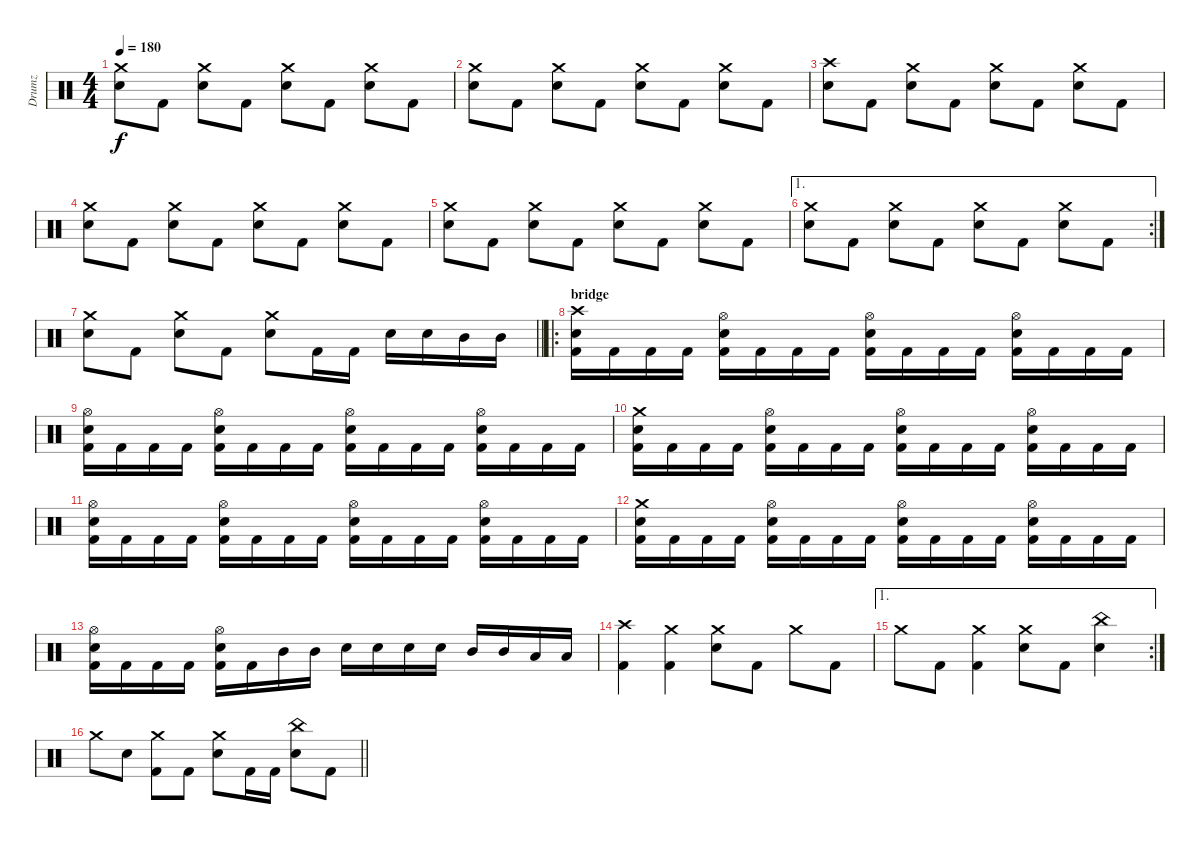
\track ("Drumz" "Drumz") {instrument percussion}
\staff {score}
\articulation defaults
\ts (4 4)
\tempo 180
\clef neutral
\ks c
("Crash medium (hit)" "Electric Snare (hit)").8{dy f} "Kick (hit) 2".8 ("Crash medium (hit)" "Electric Snare (hit)").8 "Kick (hit) 2".8 ("Crash medium (hit)" "Electric Snare (hit)").8 "Kick (hit) 2".8 ("Crash medium (hit)" "Electric Snare (hit)").8 "Kick (hit) 2".8 |
("Crash medium (hit)" "Electric Snare (hit)").8 "Kick (hit) 2".8 ("Crash medium (hit)" "Electric Snare (hit)").8 "Kick (hit) 2".8 ("Crash medium (hit)" "Electric Snare (hit)").8 "Kick (hit) 2".8 ("Crash medium (hit)" "Electric Snare (hit)").8 "Kick (hit) 2".8 |
("Crash high (hit)" "Electric Snare (hit)").8 "Kick (hit) 2".8 ("Crash medium (hit)" "Electric Snare (hit)").8 "Kick (hit) 2".8 ("Crash medium (hit)" "Electric Snare (hit)").8 "Kick (hit) 2".8 ("Crash medium (hit)" "Electric Snare (hit)").8 "Kick (hit) 2".8 |
("Crash medium (hit)" "Electric Snare (hit)").8 "Kick (hit) 2".8 ("Crash medium (hit)" "Electric Snare (hit)").8 "Kick (hit) 2".8 ("Crash medium (hit)" "Electric Snare (hit)").8 "Kick (hit) 2".8 ("Crash medium (hit)" "Electric Snare (hit)").8 "Kick (hit) 2".8 |
("Crash medium (hit)" "Electric Snare (hit)").8 "Kick (hit) 2".8 ("Crash medium (hit)" "Electric Snare (hit)").8 "Kick (hit) 2".8 ("Crash medium (hit)" "Electric Snare (hit)").8 "Kick (hit) 2".8 ("Crash medium (hit)" "Electric Snare (hit)").8 "Kick (hit) 2".8 |
\ae 1
\rc 2
("Crash medium (hit)" "Electric Snare (hit)").8 "Kick (hit) 2".8 ("Crash medium (hit)" "Electric Snare (hit)").8 "Kick (hit) 2".8 ("Crash medium (hit)" "Electric Snare (hit)").8 "Kick (hit) 2".8 ("Crash medium (hit)" "Electric Snare (hit)").8 "Kick (hit) 2".8 |
\barLineRight lightlight
("Crash medium (hit)" "Electric Snare (hit)").8 "Kick (hit) 2".8 ("Crash medium (hit)" "Electric Snare (hit)").8 "Kick (hit) 2".8 ("Crash medium (hit)" "Electric Snare (hit)").8 "Kick (hit) 2".16 "Kick (hit) 2".16 "Electric Snare (hit)".16 "Electric Snare (hit)".16 "Mid Tom (hit)".16 "Mid Tom (hit)".16 |
\ro
\section ("" "bridge")
("Crash high (hit)" "Electric Snare (hit)" "Kick (hit) 2").16 "Kick (hit) 2".16 "Kick (hit) 2".16 "Kick (hit) 2".16 ("Hi-Hat (open)" "Electric Snare (hit)" "Kick (hit) 2").16 "Kick (hit) 2".16 "Kick (hit) 2".16 "Kick (hit) 2".16 ("Hi-Hat (open)" "Electric Snare (hit)" "Kick (hit) 2").16 "Kick (hit) 2".16 "Kick (hit) 2".16 "Kick (hit) 2".16 ("Hi-Hat (open)" "Electric Snare (hit)" "Kick (hit) 2").16 "Kick (hit) 2".16 "Kick (hit) 2".16 "Kick (hit) 2".16 |
("Hi-Hat (open)" "Electric Snare (hit)" "Kick (hit) 2").16 "Kick (hit) 2".16 "Kick (hit) 2".16 "Kick (hit) 2".16 ("Hi-Hat (open)" "Electric Snare (hit)" "Kick (hit) 2").16 "Kick (hit) 2".16 "Kick (hit) 2".16 "Kick (hit) 2".16 ("Hi-Hat (open)" "Electric Snare (hit)" "Kick (hit) 2").16 "Kick (hit) 2".16 "Kick (hit) 2".16 "Kick (hit) 2".16 ("Hi-Hat (open)" "Electric Snare (hit)" "Kick (hit) 2").16 "Kick (hit) 2".16 "Kick (hit) 2".16 "Kick (hit) 2".16 |
("Crash medium (hit)" "Electric Snare (hit)" "Kick (hit) 2").16 "Kick (hit) 2".16 "Kick (hit) 2".16 "Kick (hit) 2".16 ("Hi-Hat (open)" "Electric Snare (hit)" "Kick (hit) 2").16 "Kick (hit) 2".16 "Kick (hit) 2".16 "Kick (hit) 2".16 ("Hi-Hat (open)" "Electric Snare (hit)" "Kick (hit) 2").16 "Kick (hit) 2".16 "Kick (hit) 2".16 "Kick (hit) 2".16 ("Hi-Hat (open)" "Electric Snare (hit)" "Kick (hit) 2").16 "Kick (hit) 2".16 "Kick (hit) 2".16 "Kick (hit) 2".16 |
("Hi-Hat (open)" "Electric Snare (hit)" "Kick (hit) 2").16 "Kick (hit) 2".16 "Kick (hit) 2".16 "Kick (hit) 2".16 ("Hi-Hat (open)" "Electric Snare (hit)" "Kick (hit) 2").16 "Kick (hit) 2".16 "Kick (hit) 2".16 "Kick (hit) 2".16 ("Hi-Hat (open)" "Electric Snare (hit)" "Kick (hit) 2").16 "Kick (hit) 2".16 "Kick (hit) 2".16 "Kick (hit) 2".16 ("Hi-Hat (open)" "Electric Snare (hit)" "Kick (hit) 2").16 "Kick (hit) 2".16 "Kick (hit) 2".16 "Kick (hit) 2".16 |
("Crash medium (hit)" "Electric Snare (hit)" "Kick (hit) 2").16 "Kick (hit) 2".16 "Kick (hit) 2".16 "Kick (hit) 2".16 ("Hi-Hat (open)" "Electric Snare (hit)" "Kick (hit) 2").16 "Kick (hit) 2".16 "Kick (hit) 2".16 "Kick (hit) 2".16 ("Hi-Hat (open)" "Electric Snare (hit)" "Kick (hit) 2").16 "Kick (hit) 2".16 "Kick (hit) 2".16 "Kick (hit) 2".16 ("Hi-Hat (open)" "Electric Snare (hit)" "Kick (hit) 2").16 "Kick (hit) 2".16 "Kick (hit) 2".16 "Kick (hit) 2".16 |
("Hi-Hat (open)" "Electric Snare (hit)" "Kick (hit) 2").16 "Kick (hit) 2".16 "Kick (hit) 2".16 "Kick (hit) 2".16 ("Hi-Hat (open)" "Electric Snare (hit)" "Kick (hit) 2").16 "Kick (hit) 2".16 "Mid Tom (hit)".16 "Mid Tom (hit)".16 "Electric Snare (hit)".16 "Electric Snare (hit)".16 "Electric Snare (hit)".16 "Electric Snare (hit)".16 "Mid Tom (hit)".16 "Mid Tom (hit)".16 "Low Tom (hit)".16 "Low Tom (hit)".16 |
("Crash high (hit)" "Kick (hit) 2").4 ("Crash medium (hit)" "Kick (hit) 2").4 ("Crash medium (hit)" "Electric Snare (hit)").8 "Kick (hit) 2".8 "Crash medium (hit)".8 "Kick (hit) 2".8 |
\ae 1
\rc 2 "Crash medium (hit)".8 "Kick (hit) 2".8
("Crash medium (hit)" "Kick (hit) 2").4 ("Crash medium (hit)" "Electric Snare (hit)").8 "Kick (hit) 2".8 ("China (hit)" "Electric Snare (hit)").4 |
\barLineRight lightlight "Crash medium (hit)".8 "Electric Snare (hit)".8
("Crash medium (hit)" "Kick (hit) 2").8 "Kick (hit) 2".8 ("Crash medium (hit)" "Electric Snare (hit)").8 "Kick (hit) 2".16 "Kick (hit) 2".16 ("China (hit)" "Electric Snare (hit)").8 "Kick (hit) 2".8
